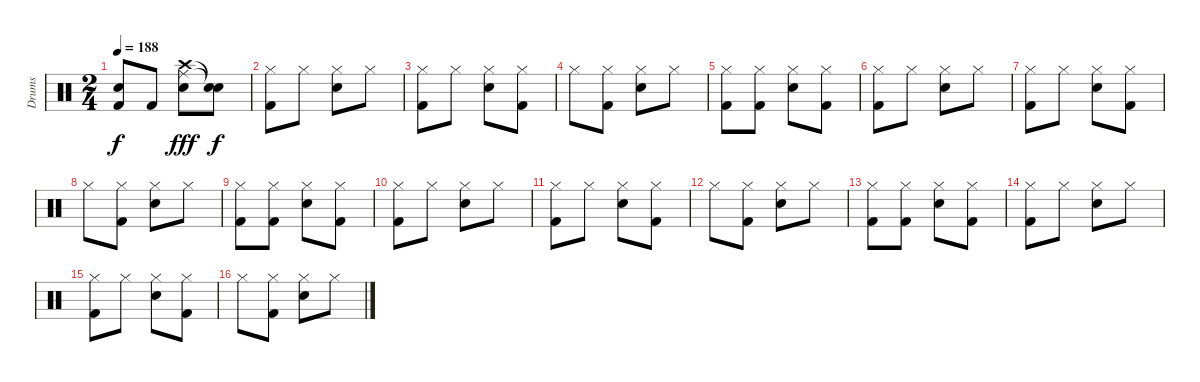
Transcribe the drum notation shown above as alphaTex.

\track ("Drums" "Drums") {instrument percussion}
\staff {score}
\articulation defaults
\ts (2 4)
\tempo 188
\clef neutral
\ks c
("Snare (hit) 2" "Kick (hit) 2").8{dy f} "Kick (hit) 2".8 ("Ride (middle)" "Crash high (hit)" "Snare (hit) 2").8{dy fff} ("Snare (hit)"{t} "Snare (hit)"{t}).8{dy f} |
("Hi-Hat (closed)" "Kick (hit) 2").8 "Hi-Hat (closed)".8 ("Hi-Hat (closed)" "Snare (hit) 2").8 "Hi-Hat (closed)".8 |
("Hi-Hat (closed)" "Kick (hit) 2").8 "Hi-Hat (closed)".8 ("Hi-Hat (closed)" "Snare (hit) 2").8 ("Hi-Hat (closed)" "Kick (hit) 2").8 |
"Hi-Hat (closed)".8 ("Hi-Hat (closed)" "Kick (hit) 2").8 ("Hi-Hat (closed)" "Snare (hit) 2").8 "Hi-Hat (closed)".8 |
("Hi-Hat (closed)" "Kick (hit) 2").8 ("Hi-Hat (closed)" "Kick (hit) 2").8 ("Hi-Hat (closed)" "Snare (hit) 2").8 ("Hi-Hat (closed)" "Kick (hit) 2").8 |
("Hi-Hat (closed)" "Kick (hit) 2").8 "Hi-Hat (closed)".8 ("Hi-Hat (closed)" "Snare (hit) 2").8 "Hi-Hat (closed)".8 |
("Hi-Hat (closed)" "Kick (hit) 2").8 "Hi-Hat (closed)".8 ("Hi-Hat (closed)" "Snare (hit) 2").8 ("Hi-Hat (closed)" "Kick (hit) 2").8 |
"Hi-Hat (closed)".8 ("Hi-Hat (closed)" "Kick (hit) 2").8 ("Hi-Hat (closed)" "Snare (hit) 2").8 "Hi-Hat (closed)".8 |
("Hi-Hat (closed)" "Kick (hit) 2").8 ("Hi-Hat (closed)" "Kick (hit) 2").8 ("Hi-Hat (closed)" "Snare (hit) 2").8 ("Hi-Hat (closed)" "Kick (hit) 2").8 |
("Hi-Hat (closed)" "Kick (hit) 2").8 "Hi-Hat (closed)".8 ("Hi-Hat (closed)" "Snare (hit) 2").8 "Hi-Hat (closed)".8 |
("Hi-Hat (closed)" "Kick (hit) 2").8 "Hi-Hat (closed)".8 ("Hi-Hat (closed)" "Snare (hit) 2").8 ("Hi-Hat (closed)" "Kick (hit) 2").8 |
"Hi-Hat (closed)".8 ("Hi-Hat (closed)" "Kick (hit) 2").8 ("Hi-Hat (closed)" "Snare (hit) 2").8 "Hi-Hat (closed)".8 |
("Hi-Hat (closed)" "Kick (hit) 2").8 ("Hi-Hat (closed)" "Kick (hit) 2").8 ("Hi-Hat (closed)" "Snare (hit) 2").8 ("Hi-Hat (closed)" "Kick (hit) 2").8 |
("Hi-Hat (closed)" "Kick (hit) 2").8 "Hi-Hat (closed)".8 ("Hi-Hat (closed)" "Snare (hit) 2").8 "Hi-Hat (closed)".8 |
("Hi-Hat (closed)" "Kick (hit) 2").8 "Hi-Hat (closed)".8 ("Hi-Hat (closed)" "Snare (hit) 2").8 ("Hi-Hat (closed)" "Kick (hit) 2").8 |
"Hi-Hat (closed)".8 ("Hi-Hat (closed)" "Kick (hit) 2").8 ("Hi-Hat (closed)" "Snare (hit) 2").8 "Hi-Hat (closed)".8
